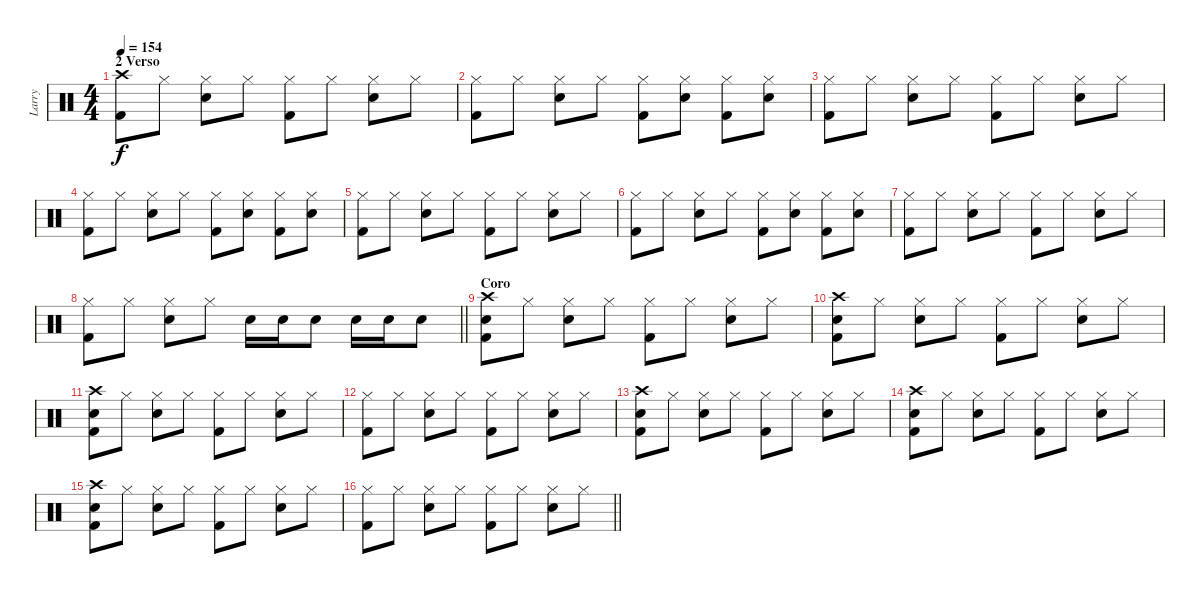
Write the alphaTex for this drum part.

\track ("Larry " "Larry ") {instrument percussion}
\staff {score}
\articulation defaults
\ts (4 4)
\section ("" "2 Verso")
\tempo 154
\clef neutral
\ks c
("Crash high (hit)" "Kick (hit) 2").8{dy f} "Hi-Hat (closed)".8 ("Hi-Hat (closed)" "Snare (hit) 2").8 "Hi-Hat (closed)".8 ("Hi-Hat (closed)" "Kick (hit) 2").8 "Hi-Hat (closed)".8 ("Hi-Hat (closed)" "Snare (hit) 2").8 "Hi-Hat (closed)".8 |
("Hi-Hat (closed)" "Kick (hit) 2").8 "Hi-Hat (closed)".8 ("Snare (hit) 2" "Hi-Hat (closed)").8 "Hi-Hat (closed)".8 ("Hi-Hat (closed)" "Kick (hit) 2").8 ("Snare (hit) 2" "Hi-Hat (closed)").8 ("Hi-Hat (closed)" "Kick (hit) 2").8 ("Snare (hit) 2" "Hi-Hat (closed)").8 |
("Hi-Hat (closed)" "Kick (hit) 2").8 "Hi-Hat (closed)".8 ("Hi-Hat (closed)" "Snare (hit) 2").8 "Hi-Hat (closed)".8 ("Hi-Hat (closed)" "Kick (hit) 2").8 "Hi-Hat (closed)".8 ("Hi-Hat (closed)" "Snare (hit) 2").8 "Hi-Hat (closed)".8 |
("Hi-Hat (closed)" "Kick (hit) 2").8 "Hi-Hat (closed)".8 ("Snare (hit) 2" "Hi-Hat (closed)").8 "Hi-Hat (closed)".8 ("Hi-Hat (closed)" "Kick (hit) 2").8 ("Snare (hit) 2" "Hi-Hat (closed)").8 ("Hi-Hat (closed)" "Kick (hit) 2").8 ("Snare (hit) 2" "Hi-Hat (closed)").8 |
("Hi-Hat (closed)" "Kick (hit) 2").8 "Hi-Hat (closed)".8 ("Hi-Hat (closed)" "Snare (hit) 2").8 "Hi-Hat (closed)".8 ("Hi-Hat (closed)" "Kick (hit) 2").8 "Hi-Hat (closed)".8 ("Hi-Hat (closed)" "Snare (hit) 2").8 "Hi-Hat (closed)".8 |
("Hi-Hat (closed)" "Kick (hit) 2").8 "Hi-Hat (closed)".8 ("Snare (hit) 2" "Hi-Hat (closed)").8 "Hi-Hat (closed)".8 ("Hi-Hat (closed)" "Kick (hit) 2").8 ("Snare (hit) 2" "Hi-Hat (closed)").8 ("Hi-Hat (closed)" "Kick (hit) 2").8 ("Snare (hit) 2" "Hi-Hat (closed)").8 |
("Hi-Hat (closed)" "Kick (hit) 2").8 "Hi-Hat (closed)".8 ("Hi-Hat (closed)" "Snare (hit) 2").8 "Hi-Hat (closed)".8 ("Hi-Hat (closed)" "Kick (hit) 2").8 "Hi-Hat (closed)".8 ("Hi-Hat (closed)" "Snare (hit) 2").8 "Hi-Hat (closed)".8 |
\barLineRight lightlight
("Hi-Hat (closed)" "Kick (hit) 2").8 "Hi-Hat (closed)".8 ("Hi-Hat (closed)" "Snare (hit) 2").8 "Hi-Hat (closed)".8 "Snare (hit) 2".16 "Snare (hit) 2".16 "Snare (hit) 2".8 "Snare (hit) 2".16 "Snare (hit) 2".16 "Snare (hit) 2".8 |
\section ("" "Coro")
("Crash high (hit)" "Snare (hit) 2" "Kick (hit) 2").8 "Hi-Hat (closed)".8 ("Hi-Hat (closed)" "Snare (hit) 2").8 "Hi-Hat (closed)".8 ("Hi-Hat (closed)" "Kick (hit) 2").8 "Hi-Hat (closed)".8 ("Hi-Hat (closed)" "Snare (hit) 2").8 "Hi-Hat (closed)".8 |
("Crash high (hit)" "Snare (hit) 2" "Kick (hit) 2").8 "Hi-Hat (closed)".8 ("Hi-Hat (closed)" "Snare (hit) 2").8 "Hi-Hat (closed)".8 ("Hi-Hat (closed)" "Kick (hit) 2").8 "Hi-Hat (closed)".8 ("Hi-Hat (closed)" "Snare (hit) 2").8 "Hi-Hat (closed)".8 |
("Crash high (hit)" "Snare (hit) 2" "Kick (hit) 2").8 "Hi-Hat (closed)".8 ("Hi-Hat (closed)" "Snare (hit) 2").8 "Hi-Hat (closed)".8 ("Hi-Hat (closed)" "Kick (hit) 2").8 "Hi-Hat (closed)".8 ("Hi-Hat (closed)" "Snare (hit) 2").8 "Hi-Hat (closed)".8 |
("Hi-Hat (closed)" "Kick (hit) 2").8 "Hi-Hat (closed)".8 ("Hi-Hat (closed)" "Snare (hit) 2").8 "Hi-Hat (closed)".8 ("Hi-Hat (closed)" "Kick (hit) 2").8 "Hi-Hat (closed)".8 ("Hi-Hat (closed)" "Snare (hit) 2").8 "Hi-Hat (closed)".8 |
("Crash high (hit)" "Snare (hit) 2" "Kick (hit) 2").8 "Hi-Hat (closed)".8 ("Hi-Hat (closed)" "Snare (hit) 2").8 "Hi-Hat (closed)".8 ("Hi-Hat (closed)" "Kick (hit) 2").8 "Hi-Hat (closed)".8 ("Hi-Hat (closed)" "Snare (hit) 2").8 "Hi-Hat (closed)".8 |
("Crash high (hit)" "Snare (hit) 2" "Kick (hit) 2").8 "Hi-Hat (closed)".8 ("Hi-Hat (closed)" "Snare (hit) 2").8 "Hi-Hat (closed)".8 ("Hi-Hat (closed)" "Kick (hit) 2").8 "Hi-Hat (closed)".8 ("Hi-Hat (closed)" "Snare (hit) 2").8 "Hi-Hat (closed)".8 |
("Crash high (hit)" "Snare (hit) 2" "Kick (hit) 2").8 "Hi-Hat (closed)".8 ("Hi-Hat (closed)" "Snare (hit) 2").8 "Hi-Hat (closed)".8 ("Hi-Hat (closed)" "Kick (hit) 2").8 "Hi-Hat (closed)".8 ("Hi-Hat (closed)" "Snare (hit) 2").8 "Hi-Hat (closed)".8 |
\barLineRight lightlight
("Hi-Hat (closed)" "Kick (hit) 2").8 "Hi-Hat (closed)".8 ("Hi-Hat (closed)" "Snare (hit) 2").8 "Hi-Hat (closed)".8 ("Hi-Hat (closed)" "Kick (hit) 2").8 "Hi-Hat (closed)".8 ("Hi-Hat (closed)" "Snare (hit) 2").8 "Hi-Hat (closed)".8
